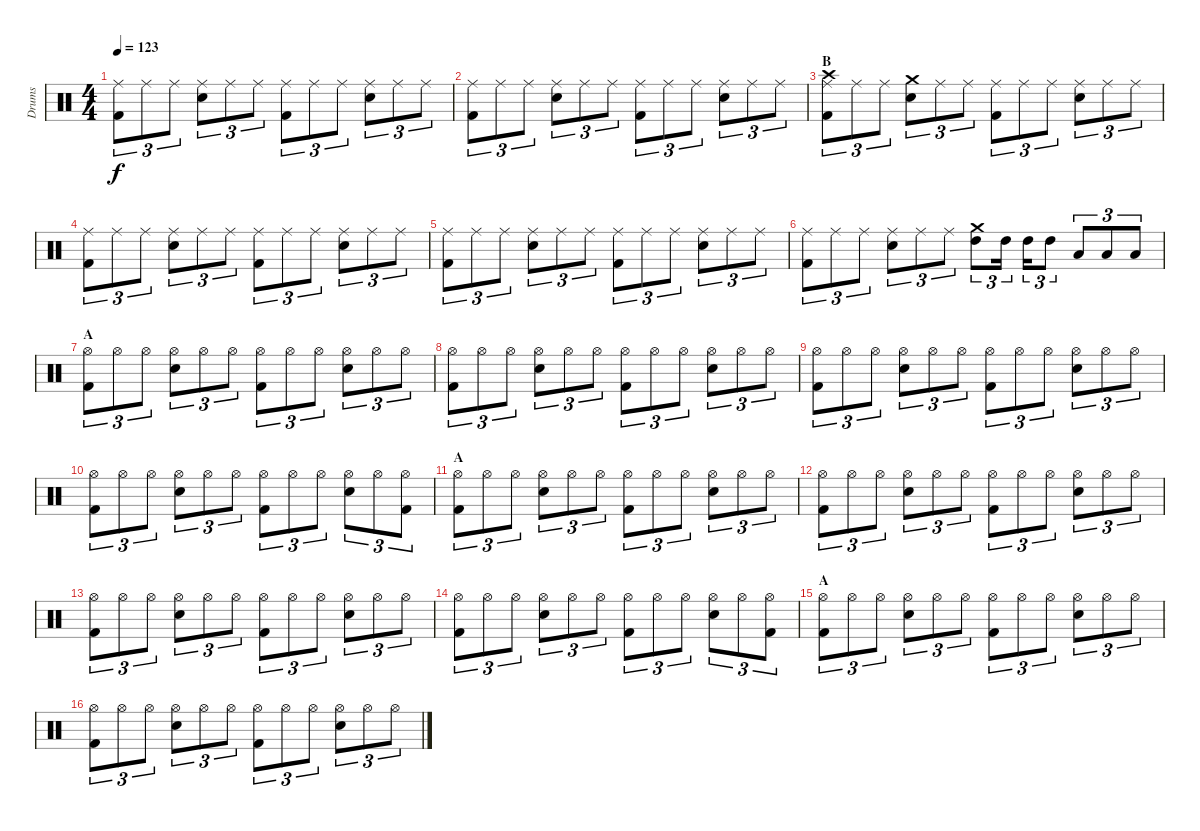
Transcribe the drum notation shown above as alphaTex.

\track ("Drums" "Drums") {instrument percussion}
\staff {score}
\articulation defaults
\ts (4 4)
\tempo 123
\clef neutral
\ks c
("Ride (middle)" "Kick (hit) 2").8{tu (3 2) dy f} "Ride (middle)".8{tu (3 2)} "Ride (middle)".8{tu (3 2)} ("Ride (middle)" "Snare (hit) 2").8{tu (3 2)} "Ride (middle)".8{tu (3 2)} "Ride (middle)".8{tu (3 2)} ("Ride (middle)" "Kick (hit) 2").8{tu (3 2)} "Ride (middle)".8{tu (3 2)} "Ride (middle)".8{tu (3 2)} ("Ride (middle)" "Snare (hit) 2").8{tu (3 2)} "Ride (middle)".8{tu (3 2)} "Ride (middle)".8{tu (3 2)} |
("Ride (middle)" "Kick (hit) 2").8{tu (3 2)} "Ride (middle)".8{tu (3 2)} "Ride (middle)".8{tu (3 2)} ("Ride (middle)" "Snare (hit) 2").8{tu (3 2)} "Ride (middle)".8{tu (3 2)} "Ride (middle)".8{tu (3 2)} ("Ride (middle)" "Kick (hit) 2").8{tu (3 2)} "Ride (middle)".8{tu (3 2)} "Ride (middle)".8{tu (3 2)} ("Ride (middle)" "Snare (hit) 2").8{tu (3 2)} "Ride (middle)".8{tu (3 2)} "Ride (middle)".8{tu (3 2)} |
\section ("" "B")
("Crash high (hit)" "Ride (middle)" "Kick (hit) 2").8{tu (3 2)} "Ride (middle)".8{tu (3 2)} "Ride (middle)".8{tu (3 2)} ("Crash medium (hit)" "Snare (hit) 2").8{tu (3 2)} "Ride (middle)".8{tu (3 2)} "Ride (middle)".8{tu (3 2)} ("Ride (middle)" "Kick (hit) 2").8{tu (3 2)} "Ride (middle)".8{tu (3 2)} "Ride (middle)".8{tu (3 2)} ("Ride (middle)" "Snare (hit) 2").8{tu (3 2)} "Ride (middle)".8{tu (3 2)} "Ride (middle)".8{tu (3 2)} |
("Ride (middle)" "Kick (hit) 2").8{tu (3 2)} "Ride (middle)".8{tu (3 2)} "Ride (middle)".8{tu (3 2)} ("Ride (middle)" "Snare (hit) 2").8{tu (3 2)} "Ride (middle)".8{tu (3 2)} "Ride (middle)".8{tu (3 2)} ("Ride (middle)" "Kick (hit) 2").8{tu (3 2)} "Ride (middle)".8{tu (3 2)} "Ride (middle)".8{tu (3 2)} ("Ride (middle)" "Snare (hit) 2").8{tu (3 2)} "Ride (middle)".8{tu (3 2)} "Ride (middle)".8{tu (3 2)} |
("Ride (middle)" "Kick (hit) 2").8{tu (3 2)} "Ride (middle)".8{tu (3 2)} "Ride (middle)".8{tu (3 2)} ("Ride (middle)" "Snare (hit) 2").8{tu (3 2)} "Ride (middle)".8{tu (3 2)} "Ride (middle)".8{tu (3 2)} ("Ride (middle)" "Kick (hit) 2").8{tu (3 2)} "Ride (middle)".8{tu (3 2)} "Ride (middle)".8{tu (3 2)} ("Ride (middle)" "Snare (hit) 2").8{tu (3 2)} "Ride (middle)".8{tu (3 2)} "Ride (middle)".8{tu (3 2)} |
("Ride (middle)" "Kick (hit) 2").8{tu (3 2)} "Ride (middle)".8{tu (3 2)} "Ride (middle)".8{tu (3 2)} ("Ride (middle)" "Snare (hit) 2").8{tu (3 2)} "Ride (middle)".8{tu (3 2)} "Ride (middle)".8{tu (3 2)} ("Crash medium (hit)" "High Tom (hit)").8{tu (3 2)} "High Tom (hit)".16{tu (3 2)} "High Tom (hit)".16{tu (3 2)} "High Tom (hit)".8{tu (3 2)} "Low Tom (hit)".8{tu (3 2)} "Low Tom (hit)".8{tu (3 2)} "Low Floor Tom (hit)".8{tu (3 2)} |
\section ("" "A")
("Hi-Hat (open)" "Kick (hit) 2").8{tu (3 2)} "Hi-Hat (open)".8{tu (3 2)} "Hi-Hat (open)".8{tu (3 2)} ("Hi-Hat (open)" "Snare (hit) 2").8{tu (3 2)} "Hi-Hat (open)".8{tu (3 2)} "Hi-Hat (open)".8{tu (3 2)} ("Hi-Hat (open)" "Kick (hit) 2").8{tu (3 2)} "Hi-Hat (open)".8{tu (3 2)} "Hi-Hat (open)".8{tu (3 2)} ("Hi-Hat (open)" "Snare (hit) 2").8{tu (3 2)} "Hi-Hat (open)".8{tu (3 2)} "Hi-Hat (open)".8{tu (3 2)} |
("Hi-Hat (open)" "Kick (hit) 2").8{tu (3 2)} "Hi-Hat (open)".8{tu (3 2)} "Hi-Hat (open)".8{tu (3 2)} ("Hi-Hat (open)" "Snare (hit) 2").8{tu (3 2)} "Hi-Hat (open)".8{tu (3 2)} "Hi-Hat (open)".8{tu (3 2)} ("Hi-Hat (open)" "Kick (hit) 2").8{tu (3 2)} "Hi-Hat (open)".8{tu (3 2)} "Hi-Hat (open)".8{tu (3 2)} ("Hi-Hat (open)" "Snare (hit) 2").8{tu (3 2)} "Hi-Hat (open)".8{tu (3 2)} "Hi-Hat (open)".8{tu (3 2)} |
("Hi-Hat (open)" "Kick (hit) 2").8{tu (3 2)} "Hi-Hat (open)".8{tu (3 2)} "Hi-Hat (open)".8{tu (3 2)} ("Hi-Hat (open)" "Snare (hit) 2").8{tu (3 2)} "Hi-Hat (open)".8{tu (3 2)} "Hi-Hat (open)".8{tu (3 2)} ("Hi-Hat (open)" "Kick (hit) 2").8{tu (3 2)} "Hi-Hat (open)".8{tu (3 2)} "Hi-Hat (open)".8{tu (3 2)} ("Hi-Hat (open)" "Snare (hit) 2").8{tu (3 2)} "Hi-Hat (open)".8{tu (3 2)} "Hi-Hat (open)".8{tu (3 2)} |
("Hi-Hat (open)" "Kick (hit) 2").8{tu (3 2)} "Hi-Hat (open)".8{tu (3 2)} "Hi-Hat (open)".8{tu (3 2)} ("Hi-Hat (open)" "Snare (hit) 2").8{tu (3 2)} "Hi-Hat (open)".8{tu (3 2)} "Hi-Hat (open)".8{tu (3 2)} ("Hi-Hat (open)" "Kick (hit) 2").8{tu (3 2)} "Hi-Hat (open)".8{tu (3 2)} "Hi-Hat (open)".8{tu (3 2)} ("Hi-Hat (open)" "Snare (hit) 2").8{tu (3 2)} "Hi-Hat (open)".8{tu (3 2)} ("Hi-Hat (open)" "Kick (hit) 2").8{tu (3 2)} |
\section ("" "A")
("Hi-Hat (open)" "Kick (hit) 2").8{tu (3 2)} "Hi-Hat (open)".8{tu (3 2)} "Hi-Hat (open)".8{tu (3 2)} ("Hi-Hat (open)" "Snare (hit) 2").8{tu (3 2)} "Hi-Hat (open)".8{tu (3 2)} "Hi-Hat (open)".8{tu (3 2)} ("Hi-Hat (open)" "Kick (hit) 2").8{tu (3 2)} "Hi-Hat (open)".8{tu (3 2)} "Hi-Hat (open)".8{tu (3 2)} ("Hi-Hat (open)" "Snare (hit) 2").8{tu (3 2)} "Hi-Hat (open)".8{tu (3 2)} "Hi-Hat (open)".8{tu (3 2)} |
("Hi-Hat (open)" "Kick (hit) 2").8{tu (3 2)} "Hi-Hat (open)".8{tu (3 2)} "Hi-Hat (open)".8{tu (3 2)} ("Hi-Hat (open)" "Snare (hit) 2").8{tu (3 2)} "Hi-Hat (open)".8{tu (3 2)} "Hi-Hat (open)".8{tu (3 2)} ("Hi-Hat (open)" "Kick (hit) 2").8{tu (3 2)} "Hi-Hat (open)".8{tu (3 2)} "Hi-Hat (open)".8{tu (3 2)} ("Hi-Hat (open)" "Snare (hit) 2").8{tu (3 2)} "Hi-Hat (open)".8{tu (3 2)} "Hi-Hat (open)".8{tu (3 2)} |
("Hi-Hat (open)" "Kick (hit) 2").8{tu (3 2)} "Hi-Hat (open)".8{tu (3 2)} "Hi-Hat (open)".8{tu (3 2)} ("Hi-Hat (open)" "Snare (hit) 2").8{tu (3 2)} "Hi-Hat (open)".8{tu (3 2)} "Hi-Hat (open)".8{tu (3 2)} ("Hi-Hat (open)" "Kick (hit) 2").8{tu (3 2)} "Hi-Hat (open)".8{tu (3 2)} "Hi-Hat (open)".8{tu (3 2)} ("Hi-Hat (open)" "Snare (hit) 2").8{tu (3 2)} "Hi-Hat (open)".8{tu (3 2)} "Hi-Hat (open)".8{tu (3 2)} |
("Hi-Hat (open)" "Kick (hit) 2").8{tu (3 2)} "Hi-Hat (open)".8{tu (3 2)} "Hi-Hat (open)".8{tu (3 2)} ("Hi-Hat (open)" "Snare (hit) 2").8{tu (3 2)} "Hi-Hat (open)".8{tu (3 2)} "Hi-Hat (open)".8{tu (3 2)} ("Hi-Hat (open)" "Kick (hit) 2").8{tu (3 2)} "Hi-Hat (open)".8{tu (3 2)} "Hi-Hat (open)".8{tu (3 2)} ("Hi-Hat (open)" "Snare (hit) 2").8{tu (3 2)} "Hi-Hat (open)".8{tu (3 2)} ("Hi-Hat (open)" "Kick (hit) 2").8{tu (3 2)} |
\section ("" "A")
("Hi-Hat (open)" "Kick (hit) 2").8{tu (3 2)} "Hi-Hat (open)".8{tu (3 2)} "Hi-Hat (open)".8{tu (3 2)} ("Hi-Hat (open)" "Snare (hit) 2").8{tu (3 2)} "Hi-Hat (open)".8{tu (3 2)} "Hi-Hat (open)".8{tu (3 2)} ("Hi-Hat (open)" "Kick (hit) 2").8{tu (3 2)} "Hi-Hat (open)".8{tu (3 2)} "Hi-Hat (open)".8{tu (3 2)} ("Hi-Hat (open)" "Snare (hit) 2").8{tu (3 2)} "Hi-Hat (open)".8{tu (3 2)} "Hi-Hat (open)".8{tu (3 2)} |
("Hi-Hat (open)" "Kick (hit) 2").8{tu (3 2)} "Hi-Hat (open)".8{tu (3 2)} "Hi-Hat (open)".8{tu (3 2)} ("Hi-Hat (open)" "Snare (hit) 2").8{tu (3 2)} "Hi-Hat (open)".8{tu (3 2)} "Hi-Hat (open)".8{tu (3 2)} ("Hi-Hat (open)" "Kick (hit) 2").8{tu (3 2)} "Hi-Hat (open)".8{tu (3 2)} "Hi-Hat (open)".8{tu (3 2)} ("Hi-Hat (open)" "Snare (hit) 2").8{tu (3 2)} "Hi-Hat (open)".8{tu (3 2)} "Hi-Hat (open)".8{tu (3 2)}
